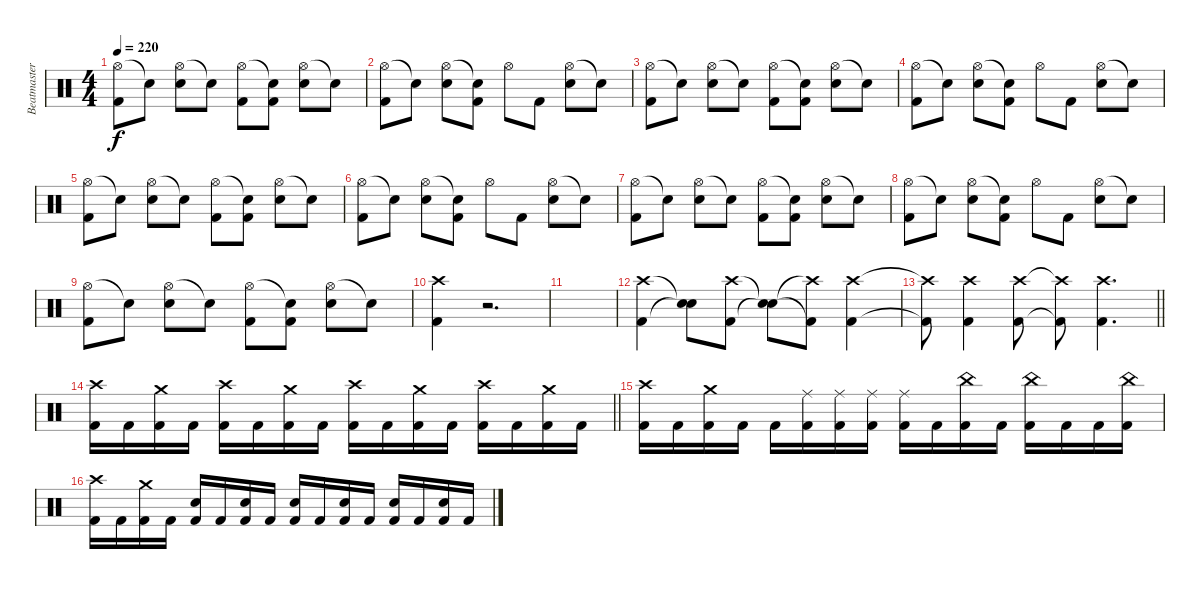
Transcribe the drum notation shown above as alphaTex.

\track ("Beatmaster V" "Beatmaster") {instrument percussion}
\staff {score}
\articulation defaults
\ts (4 4)
\tempo 220
\clef neutral
\ks c
("Hi-Hat (open)" "Kick (hit) 2").8{dy f} "Snare (hit)"{t}.8 ("Hi-Hat (open)" "Snare (hit) 2").8 "Snare (hit)"{t}.8 ("Hi-Hat (open)" "Kick (hit) 2").8 ("Snare (hit)"{t} "Kick (hit) 2").8 ("Hi-Hat (open)" "Snare (hit) 2").8 "Snare (hit)"{t}.8 |
("Hi-Hat (open)" "Kick (hit) 2").8 "Snare (hit)"{t}.8 ("Hi-Hat (open)" "Snare (hit) 2").8 ("Snare (hit)"{t} "Kick (hit) 2").8 "Hi-Hat (open)".8 "Kick (hit) 2".8 ("Hi-Hat (open)" "Snare (hit) 2").8 "Snare (hit)"{t}.8 |
("Hi-Hat (open)" "Kick (hit) 2").8 "Snare (hit)"{t}.8 ("Hi-Hat (open)" "Snare (hit) 2").8 "Snare (hit)"{t}.8 ("Hi-Hat (open)" "Kick (hit) 2").8 ("Snare (hit)"{t} "Kick (hit) 2").8 ("Hi-Hat (open)" "Snare (hit) 2").8 "Snare (hit)"{t}.8 |
("Hi-Hat (open)" "Kick (hit) 2").8 "Snare (hit)"{t}.8 ("Hi-Hat (open)" "Snare (hit) 2").8 ("Snare (hit)"{t} "Kick (hit) 2").8 "Hi-Hat (open)".8 "Kick (hit) 2".8 ("Hi-Hat (open)" "Snare (hit) 2").8 "Snare (hit)"{t}.8 |
("Hi-Hat (open)" "Kick (hit) 2").8 "Snare (hit)"{t}.8 ("Hi-Hat (open)" "Snare (hit) 2").8 "Snare (hit)"{t}.8 ("Hi-Hat (open)" "Kick (hit) 2").8 ("Snare (hit)"{t} "Kick (hit) 2").8 ("Hi-Hat (open)" "Snare (hit) 2").8 "Snare (hit)"{t}.8 |
("Hi-Hat (open)" "Kick (hit) 2").8 "Snare (hit)"{t}.8 ("Hi-Hat (open)" "Snare (hit) 2").8 ("Snare (hit)"{t} "Kick (hit) 2").8 "Hi-Hat (open)".8 "Kick (hit) 2".8 ("Hi-Hat (open)" "Snare (hit) 2").8 "Snare (hit)"{t}.8 |
("Hi-Hat (open)" "Kick (hit) 2").8 "Snare (hit)"{t}.8 ("Hi-Hat (open)" "Snare (hit) 2").8 "Snare (hit)"{t}.8 ("Hi-Hat (open)" "Kick (hit) 2").8 ("Snare (hit)"{t} "Kick (hit) 2").8 ("Hi-Hat (open)" "Snare (hit) 2").8 "Snare (hit)"{t}.8 |
("Hi-Hat (open)" "Kick (hit) 2").8 "Snare (hit)"{t}.8 ("Hi-Hat (open)" "Snare (hit) 2").8 ("Snare (hit)"{t} "Kick (hit) 2").8 "Hi-Hat (open)".8 "Kick (hit) 2".8 ("Hi-Hat (open)" "Snare (hit) 2").8 "Snare (hit)"{t}.8 |
("Hi-Hat (open)" "Kick (hit) 2").8 "Snare (hit)"{t}.8 ("Hi-Hat (open)" "Snare (hit) 2").8 "Snare (hit)"{t}.8 ("Hi-Hat (open)" "Kick (hit) 2").8 ("Snare (hit)"{t} "Kick (hit) 2").8 ("Hi-Hat (open)" "Snare (hit) 2").8 "Snare (hit)"{t}.8 |
("Crash high (hit)" "Kick (hit) 2").4 r.2{d} |
|
("Crash high (hit)" "Kick (hit) 2").4 ("Snare (hit)"{t} "Snare (hit)"{t}).8 ("Crash high (hit)" "Kick (hit) 2").8 ("Snare (hit)"{t} "Snare (hit)"{t}).8 ("Crash high (hit)"{t} "Kick (hit) 2"{t}).8 ("Crash high (hit)" "Kick (hit) 2").4 |
\barLineRight lightlight
("Crash high (hit)"{t} "Kick (hit) 2"{t}).8 ("Crash high (hit)" "Kick (hit) 2").4 ("Crash high (hit)" "Kick (hit) 2").8 ("Crash high (hit)"{t} "Kick (hit) 2"{t}).8 ("Crash high (hit)" "Kick (hit) 2").4{d} |
\barLineRight lightlight
("Crash high (hit)" "Kick (hit) 2").16 "Kick (hit) 2".16 ("Crash medium (hit)" "Kick (hit) 2").16 "Kick (hit) 2".16 ("Crash high (hit)" "Kick (hit) 2").16 "Kick (hit) 2".16 ("Crash medium (hit)" "Kick (hit) 2").16 "Kick (hit) 2".16 ("Crash high (hit)" "Kick (hit) 2").16 "Kick (hit) 2".16 ("Crash medium (hit)" "Kick (hit) 2").16 "Kick (hit) 2".16 ("Crash high (hit)" "Kick (hit) 2").16 "Kick (hit) 2".16 ("Crash medium (hit)" "Kick (hit) 2").16 "Kick (hit) 2".16 |
("Crash high (hit)" "Kick (hit) 2").16 "Kick (hit) 2".16 ("Crash medium (hit)" "Kick (hit) 2").16 "Kick (hit) 2".16 "Kick (hit) 2".16 ("Ride (middle)" "Kick (hit) 2").16 ("Ride (middle)" "Kick (hit) 2").16 ("Ride (middle)" "Kick (hit) 2").16 ("Ride (middle)" "Kick (hit) 2").16 "Kick (hit) 2".16 ("China (hit)" "Kick (hit) 2").16 "Kick (hit) 2".16 ("China (hit)" "Kick (hit) 2").16 "Kick (hit) 2".16 "Kick (hit) 2".16 ("China (hit)" "Kick (hit) 2").16 |
("Crash high (hit)" "Kick (hit) 2").16 "Kick (hit) 2".16 ("Crash medium (hit)" "Kick (hit) 2").16 "Kick (hit) 2".16 ("Snare (hit) 2" "Kick (hit) 2").16 "Kick (hit) 2".16 ("Snare (hit) 2" "Kick (hit) 2").16 "Kick (hit) 2".16 ("Snare (hit) 2" "Kick (hit) 2").16 "Kick (hit) 2".16 ("Snare (hit) 2" "Kick (hit) 2").16 "Kick (hit) 2".16 ("Snare (hit) 2" "Kick (hit) 2").16 "Kick (hit) 2".16 ("Snare (hit) 2" "Kick (hit) 2").16 "Kick (hit) 2".16
